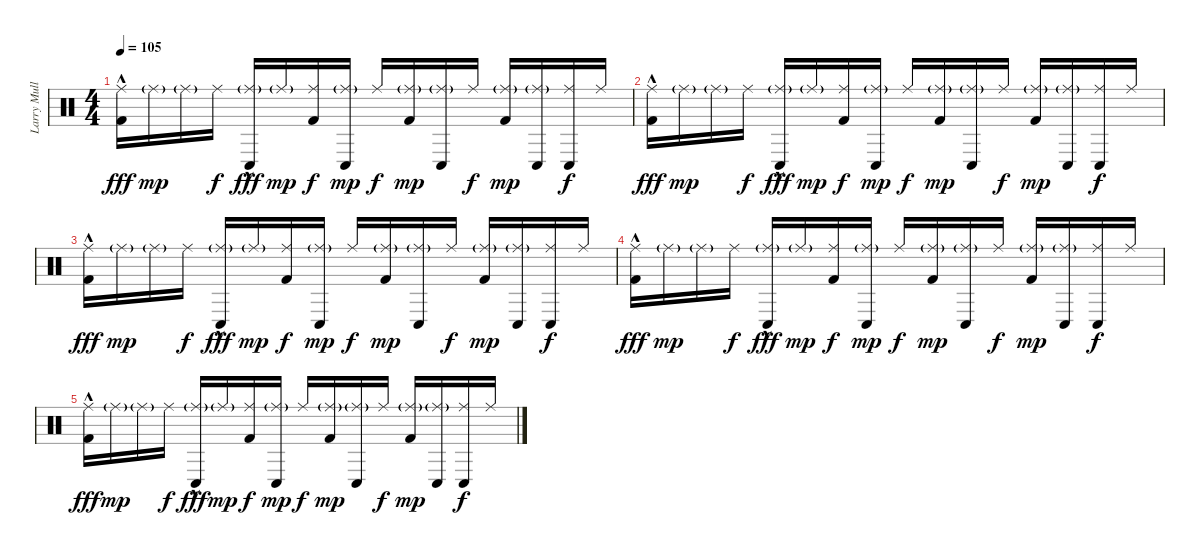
\track ("Larry Mullen Jr." "Larry Mull") {instrument percussion}
\staff {score}
\articulation defaults
\ts (4 4)
\tempo 105
\clef neutral
\ks c
("Ride (middle)" "Kick (hit) 2"{hac}).16{dy fff} "Ride (middle)"{g}.16{dy mp} "Ride (middle)"{g}.16 "Ride (middle)".16{dy f} ("Ride (middle)"{g} "Conga low (hit)"{hac}).16{dy fff} "Ride (middle)"{g}.16{dy mp} ("Ride (middle)" "Kick (hit) 2").16{dy f} ("Ride (middle)"{g} "Conga low (hit)").16{dy mp} "Ride (middle)".16{dy f} ("Ride (middle)"{g} "Kick (hit) 2").16{dy mp} ("Ride (middle)"{g} "Conga low (hit)").16 "Ride (middle)".16{dy f} ("Ride (middle)"{g} "Kick (hit) 2").16{dy mp} ("Ride (middle)"{g} "Conga low (hit)").16 ("Ride (middle)" "Conga low (hit)").16{dy f} "Ride (middle)".16 |
("Ride (middle)" "Kick (hit) 2"{hac}).16{dy fff} "Ride (middle)"{g}.16{dy mp} "Ride (middle)"{g}.16 "Ride (middle)".16{dy f} ("Ride (middle)"{g} "Conga low (hit)"{hac}).16{dy fff} "Ride (middle)"{g}.16{dy mp} ("Ride (middle)" "Kick (hit) 2").16{dy f} ("Ride (middle)"{g} "Conga low (hit)").16{dy mp} "Ride (middle)".16{dy f} ("Ride (middle)"{g} "Kick (hit) 2").16{dy mp} ("Ride (middle)"{g} "Conga low (hit)").16 "Ride (middle)".16{dy f} ("Ride (middle)"{g} "Kick (hit) 2").16{dy mp} ("Ride (middle)"{g} "Conga low (hit)").16 ("Ride (middle)" "Conga low (hit)").16{dy f} "Ride (middle)".16 |
("Ride (middle)" "Kick (hit) 2"{hac}).16{dy fff} "Ride (middle)"{g}.16{dy mp} "Ride (middle)"{g}.16 "Ride (middle)".16{dy f} ("Ride (middle)"{g} "Conga low (hit)"{hac}).16{dy fff} "Ride (middle)"{g}.16{dy mp} ("Ride (middle)" "Kick (hit) 2").16{dy f} ("Ride (middle)"{g} "Conga low (hit)").16{dy mp} "Ride (middle)".16{dy f} ("Ride (middle)"{g} "Kick (hit) 2").16{dy mp} ("Ride (middle)"{g} "Conga low (hit)").16 "Ride (middle)".16{dy f} ("Ride (middle)"{g} "Kick (hit) 2").16{dy mp} ("Ride (middle)"{g} "Conga low (hit)").16 ("Ride (middle)" "Conga low (hit)").16{dy f} "Ride (middle)".16 |
("Ride (middle)" "Kick (hit) 2"{hac}).16{dy fff} "Ride (middle)"{g}.16{dy mp} "Ride (middle)"{g}.16 "Ride (middle)".16{dy f} ("Ride (middle)"{g} "Conga low (hit)"{hac}).16{dy fff} "Ride (middle)"{g}.16{dy mp} ("Ride (middle)" "Kick (hit) 2").16{dy f} ("Ride (middle)"{g} "Conga low (hit)").16{dy mp} "Ride (middle)".16{dy f} ("Ride (middle)"{g} "Kick (hit) 2").16{dy mp} ("Ride (middle)"{g} "Conga low (hit)").16 "Ride (middle)".16{dy f} ("Ride (middle)"{g} "Kick (hit) 2").16{dy mp} ("Ride (middle)"{g} "Conga low (hit)").16 ("Ride (middle)" "Conga low (hit)").16{dy f} "Ride (middle)".16 |
("Ride (middle)" "Kick (hit) 2"{hac}).16{dy fff} "Ride (middle)"{g}.16{dy mp} "Ride (middle)"{g}.16 "Ride (middle)".16{dy f} ("Ride (middle)"{g} "Conga low (hit)"{hac}).16{dy fff} "Ride (middle)"{g}.16{dy mp} ("Ride (middle)" "Kick (hit) 2").16{dy f} ("Ride (middle)"{g} "Conga low (hit)").16{dy mp} "Ride (middle)".16{dy f} ("Ride (middle)"{g} "Kick (hit) 2").16{dy mp} ("Ride (middle)"{g} "Conga low (hit)").16 "Ride (middle)".16{dy f} ("Ride (middle)"{g} "Kick (hit) 2").16{dy mp} ("Ride (middle)"{g} "Conga low (hit)").16 ("Ride (middle)" "Conga low (hit)").16{dy f} "Ride (middle)".16
